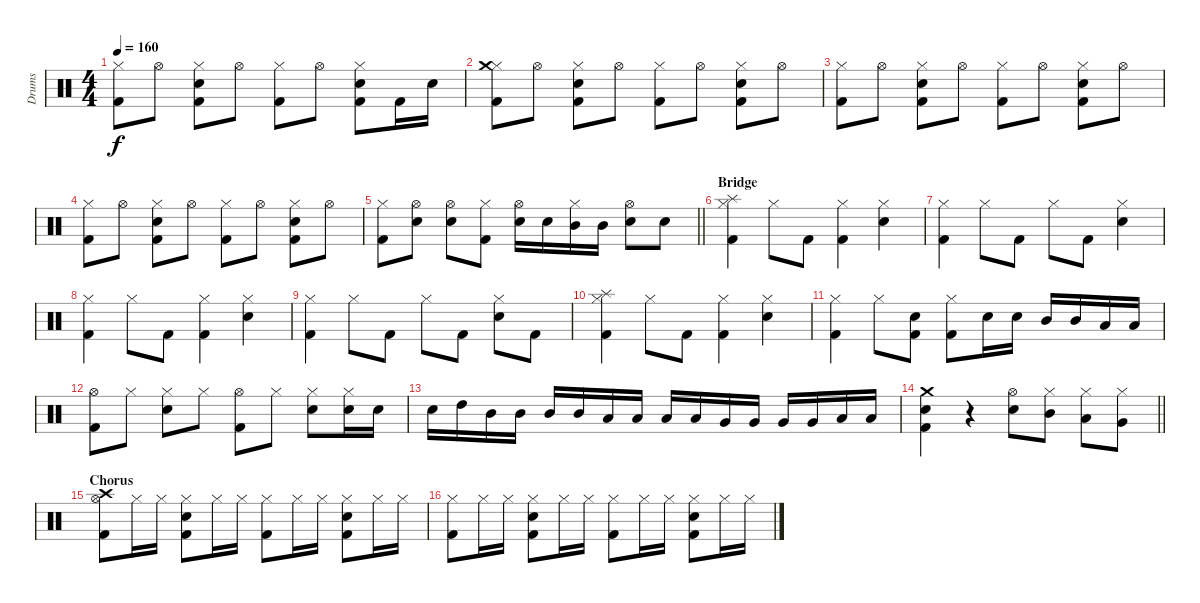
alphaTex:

\track ("Drums" "Drums") {instrument percussion}
\staff {score}
\articulation defaults
\ts (4 4)
\tempo 160
\clef neutral
\ks c
("Hi-Hat (closed)" "Kick (hit) 2").8{dy f} "Hi-Hat (open)".8 ("Hi-Hat (closed)" "Snare (hit) 2" "Kick (hit) 2").8 "Hi-Hat (open)".8 ("Hi-Hat (closed)" "Kick (hit) 2").8 "Hi-Hat (open)".8 ("Hi-Hat (closed)" "Snare (hit) 2" "Kick (hit) 2").8 "Kick (hit) 2".16 "Snare (hit) 2".16 |
("Hi-Hat (closed)" "Crash medium (hit)" "Kick (hit) 2").8 "Hi-Hat (open)".8 ("Hi-Hat (closed)" "Snare (hit) 2" "Kick (hit) 2").8 "Hi-Hat (open)".8 ("Hi-Hat (closed)" "Kick (hit) 2").8 "Hi-Hat (open)".8 ("Hi-Hat (closed)" "Snare (hit) 2" "Kick (hit) 2").8 "Hi-Hat (open)".8 |
("Hi-Hat (closed)" "Kick (hit) 2").8 "Hi-Hat (open)".8 ("Hi-Hat (closed)" "Snare (hit) 2" "Kick (hit) 2").8 "Hi-Hat (open)".8 ("Hi-Hat (closed)" "Kick (hit) 2").8 "Hi-Hat (open)".8 ("Hi-Hat (closed)" "Snare (hit) 2" "Kick (hit) 2").8 "Hi-Hat (open)".8 |
("Hi-Hat (closed)" "Kick (hit) 2").8 "Hi-Hat (open)".8 ("Hi-Hat (closed)" "Snare (hit) 2" "Kick (hit) 2").8 "Hi-Hat (open)".8 ("Hi-Hat (closed)" "Kick (hit) 2").8 "Hi-Hat (open)".8 ("Hi-Hat (closed)" "Snare (hit) 2" "Kick (hit) 2").8 "Hi-Hat (open)".8 |
\barLineRight lightlight
("Hi-Hat (closed)" "Kick (hit) 2").8 ("Hi-Hat (open)" "Snare (hit) 2").8 ("Hi-Hat (open)" "Snare (hit) 2").8 ("Hi-Hat (closed)" "Kick (hit) 2").8 ("Hi-Hat (open)" "Snare (hit) 2").16 "Snare (hit) 2".16 ("Hi-Hat (closed)" "Mid Tom (hit)").16 "Mid Tom (hit)".16 ("Hi-Hat (open)" "Snare (hit) 2").8 "Snare (hit) 2".8 |
\section ("" "Bridge")
("Hi-Hat (closed)" "Splash (hit)" "Kick (hit) 2").4 "Hi-Hat (closed)".8 "Kick (hit) 2".8 ("Hi-Hat (closed)" "Kick (hit) 2").4 ("Hi-Hat (closed)" "Snare (hit) 2").4 |
("Hi-Hat (closed)" "Kick (hit) 2").4 "Hi-Hat (closed)".8 "Kick (hit) 2".8 "Hi-Hat (closed)".8 "Kick (hit) 2".8 ("Hi-Hat (closed)" "Snare (hit) 2").4 |
("Hi-Hat (closed)" "Kick (hit) 2").4 "Hi-Hat (closed)".8 "Kick (hit) 2".8 ("Hi-Hat (closed)" "Kick (hit) 2").4 ("Hi-Hat (closed)" "Snare (hit) 2").4 |
("Hi-Hat (closed)" "Kick (hit) 2").4 "Hi-Hat (closed)".8 "Kick (hit) 2".8 "Hi-Hat (closed)".8 "Kick (hit) 2".8 ("Hi-Hat (closed)" "Snare (hit) 2").8 "Kick (hit) 2".8 |
("Hi-Hat (closed)" "Splash (hit)" "Kick (hit) 2").4 "Hi-Hat (closed)".8 "Kick (hit) 2".8 ("Hi-Hat (closed)" "Kick (hit) 2").4 ("Hi-Hat (closed)" "Snare (hit) 2").4 |
("Hi-Hat (closed)" "Kick (hit) 2").4 "Hi-Hat (closed)".8 ("Snare (hit) 2" "Kick (hit) 2").8 ("Hi-Hat (closed)" "Kick (hit) 2").8 "Snare (hit) 2".16 "Snare (hit) 2".16 "Mid Tom (hit)".16 "Mid Tom (hit)".16 "Low Tom (hit)".16 "Low Tom (hit)".16 |
("Hi-Hat (open)" "Kick (hit) 2").8 "Hi-Hat (closed)".8 ("Hi-Hat (closed)" "Snare (hit) 2").8 "Hi-Hat (closed)".8 ("Hi-Hat (open)" "Kick (hit) 2").8 "Hi-Hat (closed)".8 ("Hi-Hat (closed)" "Snare (hit) 2").8 ("Hi-Hat (closed)" "Snare (hit) 2").16 "Snare (hit) 2".16 |
"Snare (hit) 2".16 "High Tom (hit)".16 "Mid Tom (hit)".16 "Mid Tom (hit)".16 "Mid Tom (hit)".16 "Mid Tom (hit)".16 "Low Tom (hit)".16 "Low Tom (hit)".16 "Low Tom (hit)".16 "Low Tom (hit)".16 "Very Low Tom (hit)".16 "Very Low Tom (hit)".16 "Very Low Tom (hit)".16 "Very Low Tom (hit)".16 "Low Floor Tom (hit)".16 "Low Floor Tom (hit)".16 |
\barLineRight lightlight
("Crash medium (hit)" "Snare (hit) 2" "Kick (hit) 2").4 r.4 ("Hi-Hat (open)" "Snare (hit) 2").8 ("Hi-Hat (closed)" "Mid Tom (hit)").8 ("Hi-Hat (closed)" "Low Tom (hit)").8 ("Hi-Hat (closed)" "Very Low Tom (hit)").8 |
\section ("" "Chorus")
("Hi-Hat (open)" "Crash high (hit)" "Kick (hit) 2").8 "Hi-Hat (closed)".16 "Hi-Hat (closed)".16 ("Hi-Hat (closed)" "Snare (hit) 2" "Kick (hit) 2").8 "Hi-Hat (closed)".16 "Hi-Hat (closed)".16 ("Hi-Hat (closed)" "Kick (hit) 2").8 "Hi-Hat (closed)".16 "Hi-Hat (closed)".16 ("Hi-Hat (closed)" "Snare (hit) 2" "Kick (hit) 2").8 "Hi-Hat (closed)".16 "Hi-Hat (closed)".16 |
("Hi-Hat (closed)" "Kick (hit) 2").8 "Hi-Hat (closed)".16 "Hi-Hat (closed)".16 ("Hi-Hat (closed)" "Snare (hit) 2" "Kick (hit) 2").8 "Hi-Hat (closed)".16 "Hi-Hat (closed)".16 ("Hi-Hat (closed)" "Kick (hit) 2").8 "Hi-Hat (closed)".16 "Hi-Hat (closed)".16 ("Hi-Hat (closed)" "Snare (hit) 2" "Kick (hit) 2").8 "Hi-Hat (closed)".16 "Hi-Hat (closed)".16
